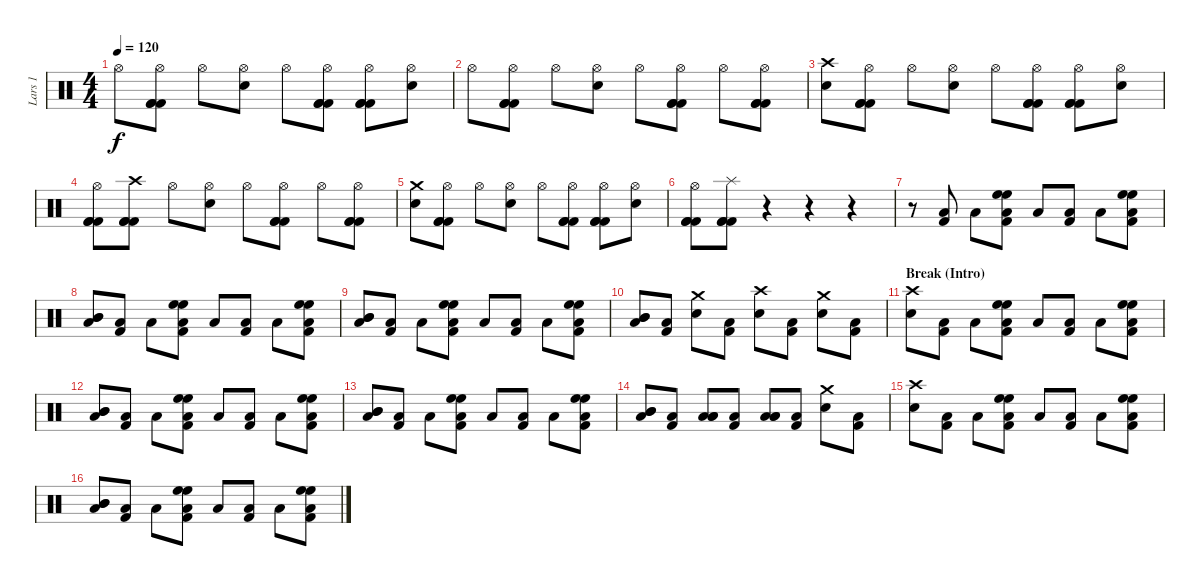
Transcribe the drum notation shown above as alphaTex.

\track ("Lars 1" "Lars 1") {instrument percussion}
\staff {score}
\articulation defaults
\ts (4 4)
\tempo 120
\clef neutral
\ks c "Hi-Hat (open)".8{dy f}
("Hi-Hat (open)" "Kick (hit) 2" "Kick (hit) 2" "Kick (hit) 2").8 "Hi-Hat (open)".8 ("Hi-Hat (open)" "Electric Snare (hit)").8 "Hi-Hat (open)".8 ("Hi-Hat (open)" "Kick (hit) 2" "Kick (hit) 2" "Kick (hit) 2").8 ("Hi-Hat (open)" "Kick (hit) 2" "Kick (hit) 2" "Kick (hit) 2").8 ("Hi-Hat (open)" "Electric Snare (hit)").8 |
"Hi-Hat (open)".8 ("Hi-Hat (open)" "Kick (hit) 2" "Kick (hit) 2" "Kick (hit) 2").8 "Hi-Hat (open)".8 ("Hi-Hat (open)" "Electric Snare (hit)").8 "Hi-Hat (open)".8 ("Hi-Hat (open)" "Kick (hit) 2" "Kick (hit) 2" "Kick (hit) 2").8 "Hi-Hat (open)".8 ("Hi-Hat (open)" "Kick (hit) 2" "Kick (hit) 2" "Kick (hit) 2").8 |
("Crash high (hit)" "Electric Snare (hit)").8 ("Hi-Hat (open)" "Kick (hit) 2" "Kick (hit) 2" "Kick (hit) 2").8 "Hi-Hat (open)".8 ("Hi-Hat (open)" "Electric Snare (hit)").8 "Hi-Hat (open)".8 ("Hi-Hat (open)" "Kick (hit) 2" "Kick (hit) 2" "Kick (hit) 2").8 ("Hi-Hat (open)" "Kick (hit) 2" "Kick (hit) 2" "Kick (hit) 2").8 ("Hi-Hat (open)" "Electric Snare (hit)").8 |
("Hi-Hat (open)" "Kick (hit) 2" "Kick (hit) 2" "Kick (hit) 2").8 ("Crash high (hit)" "Kick (hit) 2" "Kick (hit) 2" "Kick (hit) 2").8 "Hi-Hat (open)".8 ("Hi-Hat (open)" "Electric Snare (hit)").8 "Hi-Hat (open)".8 ("Hi-Hat (open)" "Kick (hit) 2" "Kick (hit) 2" "Kick (hit) 2").8 "Hi-Hat (open)".8 ("Hi-Hat (open)" "Kick (hit) 2" "Kick (hit) 2" "Kick (hit) 2").8 |
("Crash medium (hit)" "Electric Snare (hit)").8 ("Hi-Hat (open)" "Kick (hit) 2" "Kick (hit) 2" "Kick (hit) 2").8 "Hi-Hat (open)".8 ("Hi-Hat (open)" "Electric Snare (hit)").8 "Hi-Hat (open)".8 ("Hi-Hat (open)" "Kick (hit) 2" "Kick (hit) 2" "Kick (hit) 2").8 ("Hi-Hat (open)" "Kick (hit) 2" "Kick (hit) 2" "Kick (hit) 2").8 ("Hi-Hat (open)" "Electric Snare (hit)").8 |
("Hi-Hat (open)" "Kick (hit) 2" "Kick (hit) 2" "Kick (hit) 2").8 ("Splash (hit)" "Kick (hit) 2" "Kick (hit) 2" "Kick (hit) 2").8 r.4 r.4 r.4 |
r.8 ("Low Floor Tom (hit)" "Kick (hit) 2").8 "Low Floor Tom (hit)".8 ("High Floor Tom (hit)" "Low Floor Tom (hit)" "High Floor Tom (hit)" "Kick (hit) 2").8 "Low Floor Tom (hit)".8 ("Low Floor Tom (hit)" "Kick (hit) 2").8 "Low Floor Tom (hit)".8 ("High Floor Tom (hit)" "Low Floor Tom (hit)" "High Floor Tom (hit)" "Kick (hit) 2").8 |
("Mid Tom (hit)" "Low Floor Tom (hit)" "Mid Tom (hit)").8 ("Low Floor Tom (hit)" "Kick (hit) 2").8 "Low Floor Tom (hit)".8 ("High Floor Tom (hit)" "Low Floor Tom (hit)" "High Floor Tom (hit)" "Kick (hit) 2").8 "Low Floor Tom (hit)".8 ("Low Floor Tom (hit)" "Kick (hit) 2").8 "Low Floor Tom (hit)".8 ("High Floor Tom (hit)" "Low Floor Tom (hit)" "High Floor Tom (hit)" "Kick (hit) 2").8 |
("Mid Tom (hit)" "Low Floor Tom (hit)" "Mid Tom (hit)").8 ("Low Floor Tom (hit)" "Kick (hit) 2").8 "Low Floor Tom (hit)".8 ("High Floor Tom (hit)" "Low Floor Tom (hit)" "High Floor Tom (hit)" "Kick (hit) 2").8 "Low Floor Tom (hit)".8 ("Low Floor Tom (hit)" "Kick (hit) 2").8 "Low Floor Tom (hit)".8 ("High Floor Tom (hit)" "Low Floor Tom (hit)" "High Floor Tom (hit)" "Kick (hit) 2").8 |
("Mid Tom (hit)" "Low Floor Tom (hit)" "Mid Tom (hit)").8 ("Low Floor Tom (hit)" "Kick (hit) 2").8 ("Crash medium (hit)" "Electric Snare (hit)").8 ("Low Floor Tom (hit)" "Kick (hit) 2").8 ("Crash high (hit)" "Electric Snare (hit)").8 ("Low Floor Tom (hit)" "Kick (hit) 2").8 ("Crash medium (hit)" "Electric Snare (hit)").8 ("Low Floor Tom (hit)" "Kick (hit) 2").8 |
\section ("" "Break (Intro)")
("Crash high (hit)" "Electric Snare (hit)").8 ("Low Floor Tom (hit)" "Kick (hit) 2").8 "Low Floor Tom (hit)".8 ("High Floor Tom (hit)" "Low Floor Tom (hit)" "High Floor Tom (hit)" "Kick (hit) 2").8 "Low Floor Tom (hit)".8 ("Low Floor Tom (hit)" "Kick (hit) 2").8 "Low Floor Tom (hit)".8 ("High Floor Tom (hit)" "Low Floor Tom (hit)" "High Floor Tom (hit)" "Kick (hit) 2").8 |
("Mid Tom (hit)" "Low Floor Tom (hit)" "Mid Tom (hit)").8 ("Low Floor Tom (hit)" "Kick (hit) 2").8 "Low Floor Tom (hit)".8 ("High Floor Tom (hit)" "Low Floor Tom (hit)" "High Floor Tom (hit)" "Kick (hit) 2").8 "Low Floor Tom (hit)".8 ("Low Floor Tom (hit)" "Kick (hit) 2").8 "Low Floor Tom (hit)".8 ("High Floor Tom (hit)" "Low Floor Tom (hit)" "High Floor Tom (hit)" "Kick (hit) 2").8 |
("Mid Tom (hit)" "Low Floor Tom (hit)" "Mid Tom (hit)").8 ("Low Floor Tom (hit)" "Kick (hit) 2").8 "Low Floor Tom (hit)".8 ("High Floor Tom (hit)" "Low Floor Tom (hit)" "High Floor Tom (hit)" "Kick (hit) 2").8 "Low Floor Tom (hit)".8 ("Low Floor Tom (hit)" "Kick (hit) 2").8 "Low Floor Tom (hit)".8 ("High Floor Tom (hit)" "Low Floor Tom (hit)" "High Floor Tom (hit)" "Kick (hit) 2").8 |
("Mid Tom (hit)" "Low Floor Tom (hit)" "Mid Tom (hit)").8 ("Low Floor Tom (hit)" "Kick (hit) 2").8 ("Low Tom (hit)" "Low Floor Tom (hit)" "Low Tom (hit)").8 ("Low Floor Tom (hit)" "Kick (hit) 2").8 ("Low Tom (hit)" "Low Floor Tom (hit)" "Low Tom (hit)").8 ("Low Floor Tom (hit)" "Kick (hit) 2").8 ("Crash medium (hit)" "Electric Snare (hit)").8 ("Low Floor Tom (hit)" "Kick (hit) 2").8 |
("Crash high (hit)" "Electric Snare (hit)").8 ("Low Floor Tom (hit)" "Kick (hit) 2").8 "Low Floor Tom (hit)".8 ("High Floor Tom (hit)" "Low Floor Tom (hit)" "High Floor Tom (hit)" "Kick (hit) 2").8 "Low Floor Tom (hit)".8 ("Low Floor Tom (hit)" "Kick (hit) 2").8 "Low Floor Tom (hit)".8 ("High Floor Tom (hit)" "Low Floor Tom (hit)" "High Floor Tom (hit)" "Kick (hit) 2").8 |
("Mid Tom (hit)" "Low Floor Tom (hit)" "Mid Tom (hit)").8 ("Low Floor Tom (hit)" "Kick (hit) 2").8 "Low Floor Tom (hit)".8 ("High Floor Tom (hit)" "Low Floor Tom (hit)" "High Floor Tom (hit)" "Kick (hit) 2").8 "Low Floor Tom (hit)".8 ("Low Floor Tom (hit)" "Kick (hit) 2").8 "Low Floor Tom (hit)".8 ("High Floor Tom (hit)" "Low Floor Tom (hit)" "High Floor Tom (hit)" "Kick (hit) 2").8
